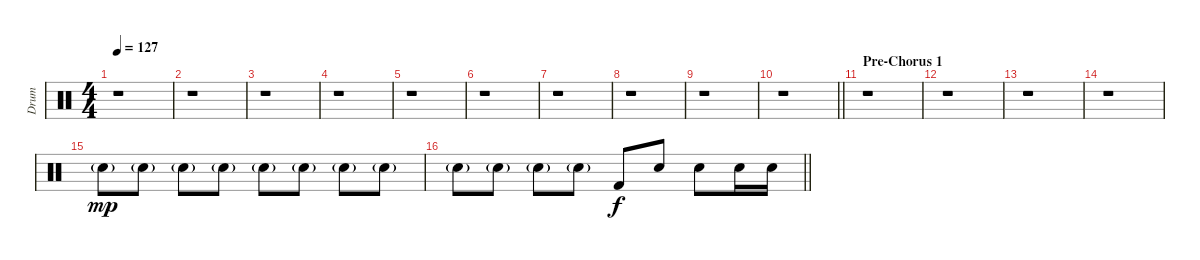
\track ("Drum" "Drum") {instrument percussion}
\staff {score}
\articulation defaults
\ts (4 4)
\tempo 127
\clef neutral
\ks c
r.1{dy f} |
r.1 |
r.1 |
r.1 |
r.1 |
r.1 |
r.1 |
r.1 |
r.1 |
\barLineRight lightlight
r.1 |
\section ("" "Pre-Chorus 1")
r.1 |
r.1 |
r.1 |
r.1 |
"Electric Snare (hit)"{g}.8{dy mp} "Electric Snare (hit)"{g}.8 "Electric Snare (hit)"{g}.8 "Electric Snare (hit)"{g}.8 "Electric Snare (hit)"{g}.8 "Electric Snare (hit)"{g}.8 "Electric Snare (hit)"{g}.8 "Electric Snare (hit)"{g}.8 |
\barLineRight lightlight "Electric Snare (hit)"{g}.8 "Electric Snare (hit)"{g}.8 "Electric Snare (hit)"{g}.8 "Electric Snare (hit)"{g}.8 "Kick (hit) 2".8{dy f} "Electric Snare (hit)".8 "Electric Snare (hit)".8 "Electric Snare (hit)".16 "Electric Snare (hit)".16
